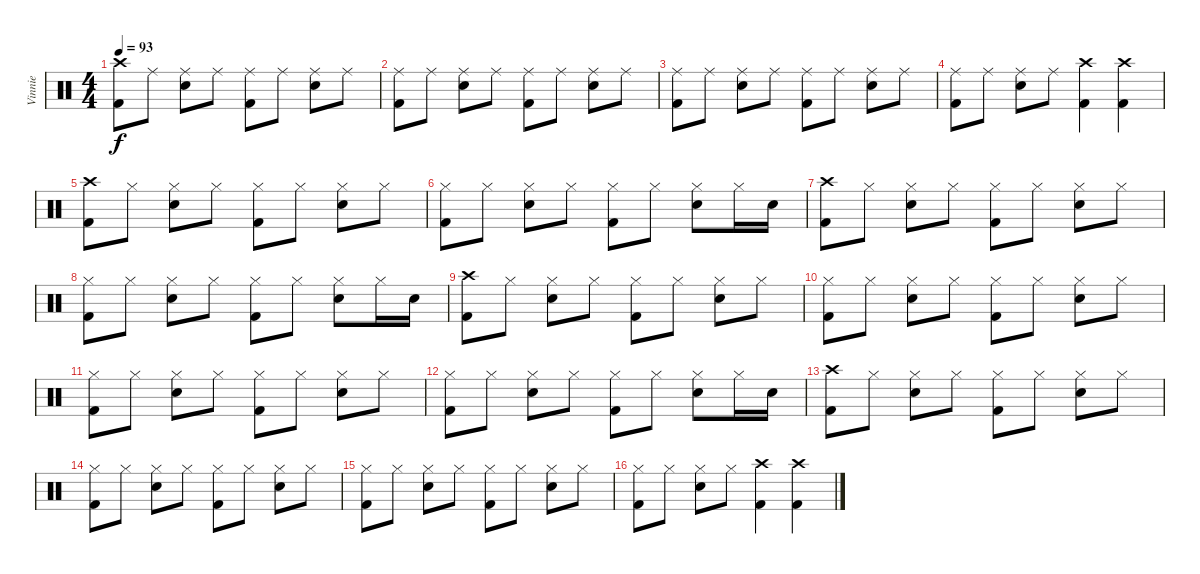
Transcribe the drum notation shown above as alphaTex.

\track ("Vinnie" "Vinnie") {instrument percussion}
\staff {score}
\articulation defaults
\ts (4 4)
\tempo 93
\clef neutral
\ks c
("Crash high (hit)" "Kick (hit) 2").8{dy f} "Ride (middle)".8 ("Ride (middle)" "Electric Snare (hit)").8 "Ride (middle)".8 ("Ride (middle)" "Kick (hit) 2").8 "Ride (middle)".8 ("Ride (middle)" "Electric Snare (hit)").8 "Ride (middle)".8 |
("Ride (middle)" "Kick (hit) 2").8 "Ride (middle)".8 ("Ride (middle)" "Electric Snare (hit)").8 "Ride (middle)".8 ("Ride (middle)" "Kick (hit) 2").8 "Ride (middle)".8 ("Ride (middle)" "Electric Snare (hit)").8 "Ride (middle)".8 |
("Ride (middle)" "Kick (hit) 2").8 "Ride (middle)".8 ("Ride (middle)" "Electric Snare (hit)").8 "Ride (middle)".8 ("Ride (middle)" "Kick (hit) 2").8 "Ride (middle)".8 ("Ride (middle)" "Electric Snare (hit)").8 "Ride (middle)".8 |
("Ride (middle)" "Kick (hit) 2").8 "Ride (middle)".8 ("Ride (middle)" "Electric Snare (hit)").8 "Ride (middle)".8 ("Crash high (hit)" "Kick (hit) 2").4 ("Crash high (hit)" "Kick (hit) 2").4 |
("Crash high (hit)" "Kick (hit) 2").8 "Hi-Hat (closed)".8 ("Hi-Hat (closed)" "Electric Snare (hit)").8 "Hi-Hat (closed)".8 ("Hi-Hat (closed)" "Kick (hit) 2").8 "Hi-Hat (closed)".8 ("Hi-Hat (closed)" "Electric Snare (hit)").8 "Hi-Hat (closed)".8 |
("Hi-Hat (closed)" "Kick (hit) 2").8 "Hi-Hat (closed)".8 ("Hi-Hat (closed)" "Electric Snare (hit)").8 "Hi-Hat (closed)".8 ("Hi-Hat (closed)" "Kick (hit) 2").8 "Hi-Hat (closed)".8 ("Hi-Hat (closed)" "Electric Snare (hit)").8 "Hi-Hat (closed)".16 "Electric Snare (hit)".16 |
("Crash high (hit)" "Kick (hit) 2").8 "Hi-Hat (closed)".8 ("Hi-Hat (closed)" "Electric Snare (hit)").8 "Hi-Hat (closed)".8 ("Hi-Hat (closed)" "Kick (hit) 2").8 "Hi-Hat (closed)".8 ("Hi-Hat (closed)" "Electric Snare (hit)").8 "Hi-Hat (closed)".8 |
("Hi-Hat (closed)" "Kick (hit) 2").8 "Hi-Hat (closed)".8 ("Hi-Hat (closed)" "Electric Snare (hit)").8 "Hi-Hat (closed)".8 ("Hi-Hat (closed)" "Kick (hit) 2").8 "Hi-Hat (closed)".8 ("Hi-Hat (closed)" "Electric Snare (hit)").8 "Hi-Hat (closed)".16 "Electric Snare (hit)".16 |
("Crash high (hit)" "Kick (hit) 2").8 "Hi-Hat (closed)".8 ("Hi-Hat (closed)" "Electric Snare (hit)").8 "Hi-Hat (closed)".8 ("Hi-Hat (closed)" "Kick (hit) 2").8 "Hi-Hat (closed)".8 ("Hi-Hat (closed)" "Electric Snare (hit)").8 "Hi-Hat (closed)".8 |
("Hi-Hat (closed)" "Kick (hit) 2").8 "Hi-Hat (closed)".8 ("Hi-Hat (closed)" "Electric Snare (hit)").8 "Hi-Hat (closed)".8 ("Hi-Hat (closed)" "Kick (hit) 2").8 "Hi-Hat (closed)".8 ("Hi-Hat (closed)" "Electric Snare (hit)").8 "Hi-Hat (closed)".8 |
("Hi-Hat (closed)" "Kick (hit) 2").8 "Hi-Hat (closed)".8 ("Hi-Hat (closed)" "Electric Snare (hit)").8 "Hi-Hat (closed)".8 ("Hi-Hat (closed)" "Kick (hit) 2").8 "Hi-Hat (closed)".8 ("Hi-Hat (closed)" "Electric Snare (hit)").8 "Hi-Hat (closed)".8 |
("Hi-Hat (closed)" "Kick (hit) 2").8 "Hi-Hat (closed)".8 ("Hi-Hat (closed)" "Electric Snare (hit)").8 "Hi-Hat (closed)".8 ("Hi-Hat (closed)" "Kick (hit) 2").8 "Hi-Hat (closed)".8 ("Hi-Hat (closed)" "Electric Snare (hit)").8 "Hi-Hat (closed)".16 "Electric Snare (hit)".16 |
("Crash high (hit)" "Kick (hit) 2").8 "Hi-Hat (closed)".8 ("Hi-Hat (closed)" "Electric Snare (hit)").8 "Hi-Hat (closed)".8 ("Hi-Hat (closed)" "Kick (hit) 2").8 "Hi-Hat (closed)".8 ("Hi-Hat (closed)" "Electric Snare (hit)").8 "Hi-Hat (closed)".8 |
("Hi-Hat (closed)" "Kick (hit) 2").8 "Hi-Hat (closed)".8 ("Hi-Hat (closed)" "Electric Snare (hit)").8 "Hi-Hat (closed)".8 ("Hi-Hat (closed)" "Kick (hit) 2").8 "Hi-Hat (closed)".8 ("Hi-Hat (closed)" "Electric Snare (hit)").8 "Hi-Hat (closed)".8 |
("Hi-Hat (closed)" "Kick (hit) 2").8 "Hi-Hat (closed)".8 ("Hi-Hat (closed)" "Electric Snare (hit)").8 "Hi-Hat (closed)".8 ("Hi-Hat (closed)" "Kick (hit) 2").8 "Hi-Hat (closed)".8 ("Hi-Hat (closed)" "Electric Snare (hit)").8 "Hi-Hat (closed)".8 |
("Hi-Hat (closed)" "Kick (hit) 2").8 "Hi-Hat (closed)".8 ("Hi-Hat (closed)" "Electric Snare (hit)").8 "Hi-Hat (closed)".8 ("Crash high (hit)" "Kick (hit) 2").4 ("Crash high (hit)" "Kick (hit) 2").4
